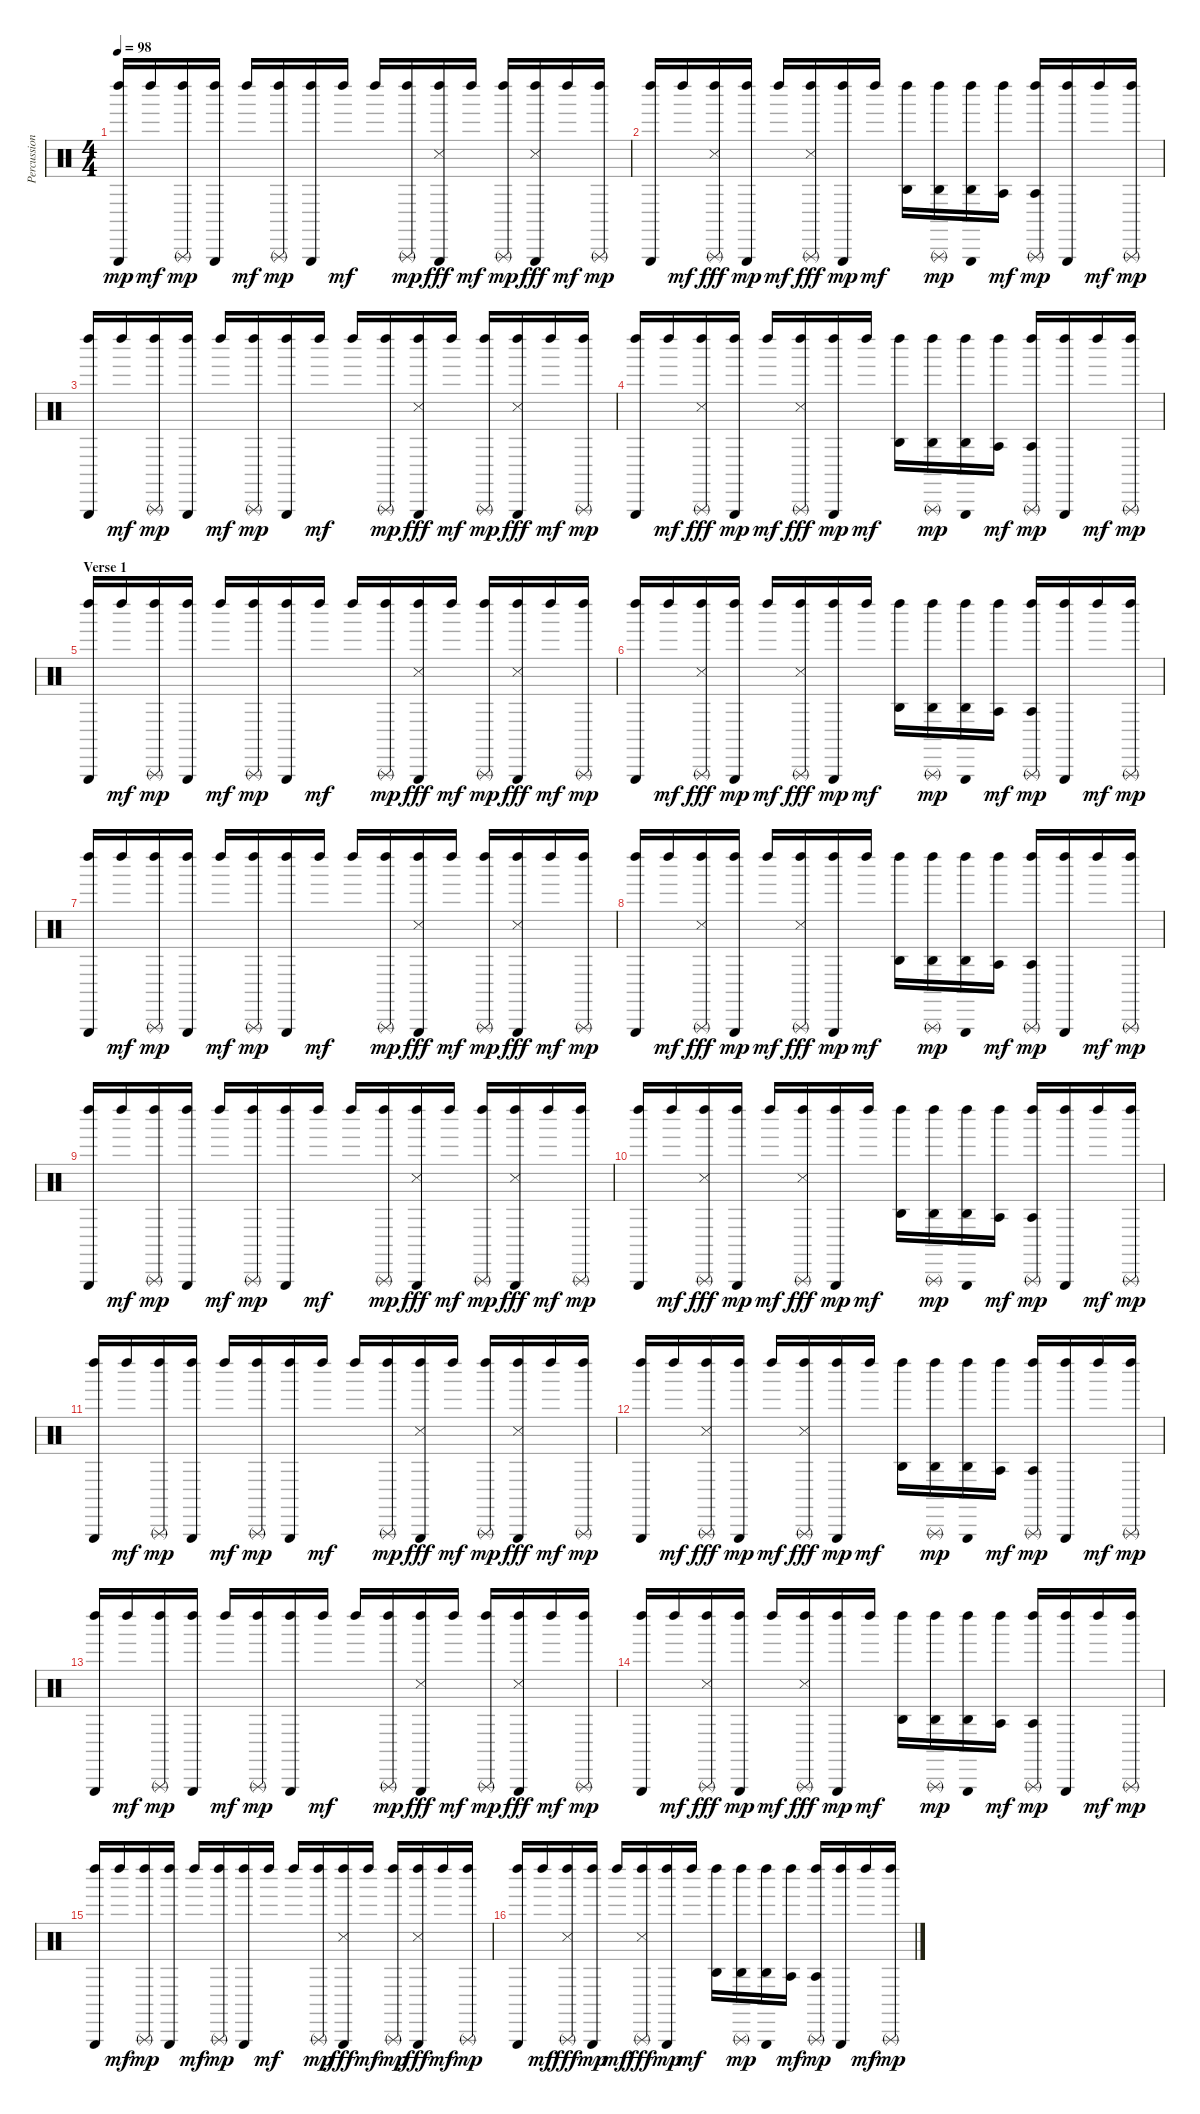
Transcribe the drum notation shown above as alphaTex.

\track ("Percussions" "Percussion") {instrument percussion}
\staff {score}
\articulation defaults
\ts (4 4)
\tempo 98
\clef neutral
\ks c
("Left Maraca (hit)" "Triangle (hit)").16{dy mp} "Left Maraca (hit)".16{dy mf} ("Left Maraca (hit)" "Triangle (rnute)").16{dy mp} ("Left Maraca (hit)" "Triangle (hit)").16 "Left Maraca (hit)".16{dy mf} ("Left Maraca (hit)" "Triangle (rnute)").16{dy mp} ("Left Maraca (hit)" "Triangle (hit)").16 "Left Maraca (hit)".16{dy mf} "Left Maraca (hit)".16 ("Left Maraca (hit)" "Triangle (rnute)").16{dy mp} ("Left Maraca (hit)" "Triangle (hit)" "Snare (side stick) 3").16{dy fff} "Left Maraca (hit)".16{dy mf} ("Left Maraca (hit)" "Triangle (rnute)").16{dy mp} ("Left Maraca (hit)" "Triangle (hit)" "Snare (side stick) 3").16{dy fff} "Left Maraca (hit)".16{dy mf} ("Left Maraca (hit)" "Triangle (rnute)").16{dy mp} |
("Left Maraca (hit)" "Triangle (hit)").16 "Left Maraca (hit)".16{dy mf} ("Left Maraca (hit)" "Triangle (rnute)" "Snare (side stick) 3").16{dy fff} ("Left Maraca (hit)" "Triangle (hit)").16{dy mp} "Left Maraca (hit)".16{dy mf} ("Left Maraca (hit)" "Triangle (rnute)" "Snare (side stick) 3").16{dy fff} ("Left Maraca (hit)" "Triangle (hit)").16{dy mp} "Left Maraca (hit)".16{dy mf} ("Left Maraca (hit)" "Agogo high (hit)").16 ("Left Maraca (hit)" "Triangle (rnute)" "Agogo high (hit)").16{dy mp} ("Left Maraca (hit)" "Triangle (hit)" "Agogo high (hit)").16 ("Left Maraca (hit)" "Agogo tow (hit)").16{dy mf} ("Left Maraca (hit)" "Triangle (rnute)" "Agogo tow (hit)").16{dy mp} ("Left Maraca (hit)" "Triangle (hit)").16 "Left Maraca (hit)".16{dy mf} ("Left Maraca (hit)" "Triangle (rnute)").16{dy mp} |
("Left Maraca (hit)" "Triangle (hit)").16 "Left Maraca (hit)".16{dy mf} ("Left Maraca (hit)" "Triangle (rnute)").16{dy mp} ("Left Maraca (hit)" "Triangle (hit)").16 "Left Maraca (hit)".16{dy mf} ("Left Maraca (hit)" "Triangle (rnute)").16{dy mp} ("Left Maraca (hit)" "Triangle (hit)").16 "Left Maraca (hit)".16{dy mf} "Left Maraca (hit)".16 ("Left Maraca (hit)" "Triangle (rnute)").16{dy mp} ("Left Maraca (hit)" "Triangle (hit)" "Snare (side stick) 3").16{dy fff} "Left Maraca (hit)".16{dy mf} ("Left Maraca (hit)" "Triangle (rnute)").16{dy mp} ("Left Maraca (hit)" "Triangle (hit)" "Snare (side stick) 3").16{dy fff} "Left Maraca (hit)".16{dy mf} ("Left Maraca (hit)" "Triangle (rnute)").16{dy mp} |
("Left Maraca (hit)" "Triangle (hit)").16 "Left Maraca (hit)".16{dy mf} ("Left Maraca (hit)" "Triangle (rnute)" "Snare (side stick) 3").16{dy fff} ("Left Maraca (hit)" "Triangle (hit)").16{dy mp} "Left Maraca (hit)".16{dy mf} ("Left Maraca (hit)" "Triangle (rnute)" "Snare (side stick) 3").16{dy fff} ("Left Maraca (hit)" "Triangle (hit)").16{dy mp} "Left Maraca (hit)".16{dy mf} ("Left Maraca (hit)" "Agogo high (hit)").16 ("Left Maraca (hit)" "Triangle (rnute)" "Agogo high (hit)").16{dy mp} ("Left Maraca (hit)" "Triangle (hit)" "Agogo high (hit)").16 ("Left Maraca (hit)" "Agogo tow (hit)").16{dy mf} ("Left Maraca (hit)" "Triangle (rnute)" "Agogo tow (hit)").16{dy mp} ("Left Maraca (hit)" "Triangle (hit)").16 "Left Maraca (hit)".16{dy mf} ("Left Maraca (hit)" "Triangle (rnute)").16{dy mp} |
\section ("" "Verse 1")
("Left Maraca (hit)" "Triangle (hit)").16 "Left Maraca (hit)".16{dy mf} ("Left Maraca (hit)" "Triangle (rnute)").16{dy mp} ("Left Maraca (hit)" "Triangle (hit)").16 "Left Maraca (hit)".16{dy mf} ("Left Maraca (hit)" "Triangle (rnute)").16{dy mp} ("Left Maraca (hit)" "Triangle (hit)").16 "Left Maraca (hit)".16{dy mf} "Left Maraca (hit)".16 ("Left Maraca (hit)" "Triangle (rnute)").16{dy mp} ("Left Maraca (hit)" "Triangle (hit)" "Snare (side stick) 3").16{dy fff} "Left Maraca (hit)".16{dy mf} ("Left Maraca (hit)" "Triangle (rnute)").16{dy mp} ("Left Maraca (hit)" "Triangle (hit)" "Snare (side stick) 3").16{dy fff} "Left Maraca (hit)".16{dy mf} ("Left Maraca (hit)" "Triangle (rnute)").16{dy mp} |
("Left Maraca (hit)" "Triangle (hit)").16 "Left Maraca (hit)".16{dy mf} ("Left Maraca (hit)" "Triangle (rnute)" "Snare (side stick) 3").16{dy fff} ("Left Maraca (hit)" "Triangle (hit)").16{dy mp} "Left Maraca (hit)".16{dy mf} ("Left Maraca (hit)" "Triangle (rnute)" "Snare (side stick) 3").16{dy fff} ("Left Maraca (hit)" "Triangle (hit)").16{dy mp} "Left Maraca (hit)".16{dy mf} ("Left Maraca (hit)" "Agogo high (hit)").16 ("Left Maraca (hit)" "Triangle (rnute)" "Agogo high (hit)").16{dy mp} ("Left Maraca (hit)" "Triangle (hit)" "Agogo high (hit)").16 ("Left Maraca (hit)" "Agogo tow (hit)").16{dy mf} ("Left Maraca (hit)" "Triangle (rnute)" "Agogo tow (hit)").16{dy mp} ("Left Maraca (hit)" "Triangle (hit)").16 "Left Maraca (hit)".16{dy mf} ("Left Maraca (hit)" "Triangle (rnute)").16{dy mp} |
("Left Maraca (hit)" "Triangle (hit)").16 "Left Maraca (hit)".16{dy mf} ("Left Maraca (hit)" "Triangle (rnute)").16{dy mp} ("Left Maraca (hit)" "Triangle (hit)").16 "Left Maraca (hit)".16{dy mf} ("Left Maraca (hit)" "Triangle (rnute)").16{dy mp} ("Left Maraca (hit)" "Triangle (hit)").16 "Left Maraca (hit)".16{dy mf} "Left Maraca (hit)".16 ("Left Maraca (hit)" "Triangle (rnute)").16{dy mp} ("Left Maraca (hit)" "Triangle (hit)" "Snare (side stick) 3").16{dy fff} "Left Maraca (hit)".16{dy mf} ("Left Maraca (hit)" "Triangle (rnute)").16{dy mp} ("Left Maraca (hit)" "Triangle (hit)" "Snare (side stick) 3").16{dy fff} "Left Maraca (hit)".16{dy mf} ("Left Maraca (hit)" "Triangle (rnute)").16{dy mp} |
("Left Maraca (hit)" "Triangle (hit)").16 "Left Maraca (hit)".16{dy mf} ("Left Maraca (hit)" "Triangle (rnute)" "Snare (side stick) 3").16{dy fff} ("Left Maraca (hit)" "Triangle (hit)").16{dy mp} "Left Maraca (hit)".16{dy mf} ("Left Maraca (hit)" "Triangle (rnute)" "Snare (side stick) 3").16{dy fff} ("Left Maraca (hit)" "Triangle (hit)").16{dy mp} "Left Maraca (hit)".16{dy mf} ("Left Maraca (hit)" "Agogo high (hit)").16 ("Left Maraca (hit)" "Triangle (rnute)" "Agogo high (hit)").16{dy mp} ("Left Maraca (hit)" "Triangle (hit)" "Agogo high (hit)").16 ("Left Maraca (hit)" "Agogo tow (hit)").16{dy mf} ("Left Maraca (hit)" "Triangle (rnute)" "Agogo tow (hit)").16{dy mp} ("Left Maraca (hit)" "Triangle (hit)").16 "Left Maraca (hit)".16{dy mf} ("Left Maraca (hit)" "Triangle (rnute)").16{dy mp} |
("Left Maraca (hit)" "Triangle (hit)").16 "Left Maraca (hit)".16{dy mf} ("Left Maraca (hit)" "Triangle (rnute)").16{dy mp} ("Left Maraca (hit)" "Triangle (hit)").16 "Left Maraca (hit)".16{dy mf} ("Left Maraca (hit)" "Triangle (rnute)").16{dy mp} ("Left Maraca (hit)" "Triangle (hit)").16 "Left Maraca (hit)".16{dy mf} "Left Maraca (hit)".16 ("Left Maraca (hit)" "Triangle (rnute)").16{dy mp} ("Left Maraca (hit)" "Triangle (hit)" "Snare (side stick) 3").16{dy fff} "Left Maraca (hit)".16{dy mf} ("Left Maraca (hit)" "Triangle (rnute)").16{dy mp} ("Left Maraca (hit)" "Triangle (hit)" "Snare (side stick) 3").16{dy fff} "Left Maraca (hit)".16{dy mf} ("Left Maraca (hit)" "Triangle (rnute)").16{dy mp} |
("Left Maraca (hit)" "Triangle (hit)").16 "Left Maraca (hit)".16{dy mf} ("Left Maraca (hit)" "Triangle (rnute)" "Snare (side stick) 3").16{dy fff} ("Left Maraca (hit)" "Triangle (hit)").16{dy mp} "Left Maraca (hit)".16{dy mf} ("Left Maraca (hit)" "Triangle (rnute)" "Snare (side stick) 3").16{dy fff} ("Left Maraca (hit)" "Triangle (hit)").16{dy mp} "Left Maraca (hit)".16{dy mf} ("Left Maraca (hit)" "Agogo high (hit)").16 ("Left Maraca (hit)" "Triangle (rnute)" "Agogo high (hit)").16{dy mp} ("Left Maraca (hit)" "Triangle (hit)" "Agogo high (hit)").16 ("Left Maraca (hit)" "Agogo tow (hit)").16{dy mf} ("Left Maraca (hit)" "Triangle (rnute)" "Agogo tow (hit)").16{dy mp} ("Left Maraca (hit)" "Triangle (hit)").16 "Left Maraca (hit)".16{dy mf} ("Left Maraca (hit)" "Triangle (rnute)").16{dy mp} |
("Left Maraca (hit)" "Triangle (hit)").16 "Left Maraca (hit)".16{dy mf} ("Left Maraca (hit)" "Triangle (rnute)").16{dy mp} ("Left Maraca (hit)" "Triangle (hit)").16 "Left Maraca (hit)".16{dy mf} ("Left Maraca (hit)" "Triangle (rnute)").16{dy mp} ("Left Maraca (hit)" "Triangle (hit)").16 "Left Maraca (hit)".16{dy mf} "Left Maraca (hit)".16 ("Left Maraca (hit)" "Triangle (rnute)").16{dy mp} ("Left Maraca (hit)" "Triangle (hit)" "Snare (side stick) 3").16{dy fff} "Left Maraca (hit)".16{dy mf} ("Left Maraca (hit)" "Triangle (rnute)").16{dy mp} ("Left Maraca (hit)" "Triangle (hit)" "Snare (side stick) 3").16{dy fff} "Left Maraca (hit)".16{dy mf} ("Left Maraca (hit)" "Triangle (rnute)").16{dy mp} |
("Left Maraca (hit)" "Triangle (hit)").16 "Left Maraca (hit)".16{dy mf} ("Left Maraca (hit)" "Triangle (rnute)" "Snare (side stick) 3").16{dy fff} ("Left Maraca (hit)" "Triangle (hit)").16{dy mp} "Left Maraca (hit)".16{dy mf} ("Left Maraca (hit)" "Triangle (rnute)" "Snare (side stick) 3").16{dy fff} ("Left Maraca (hit)" "Triangle (hit)").16{dy mp} "Left Maraca (hit)".16{dy mf} ("Left Maraca (hit)" "Agogo high (hit)").16 ("Left Maraca (hit)" "Triangle (rnute)" "Agogo high (hit)").16{dy mp} ("Left Maraca (hit)" "Triangle (hit)" "Agogo high (hit)").16 ("Left Maraca (hit)" "Agogo tow (hit)").16{dy mf} ("Left Maraca (hit)" "Triangle (rnute)" "Agogo tow (hit)").16{dy mp} ("Left Maraca (hit)" "Triangle (hit)").16 "Left Maraca (hit)".16{dy mf} ("Left Maraca (hit)" "Triangle (rnute)").16{dy mp} |
("Left Maraca (hit)" "Triangle (hit)").16 "Left Maraca (hit)".16{dy mf} ("Left Maraca (hit)" "Triangle (rnute)").16{dy mp} ("Left Maraca (hit)" "Triangle (hit)").16 "Left Maraca (hit)".16{dy mf} ("Left Maraca (hit)" "Triangle (rnute)").16{dy mp} ("Left Maraca (hit)" "Triangle (hit)").16 "Left Maraca (hit)".16{dy mf} "Left Maraca (hit)".16 ("Left Maraca (hit)" "Triangle (rnute)").16{dy mp} ("Left Maraca (hit)" "Triangle (hit)" "Snare (side stick) 3").16{dy fff} "Left Maraca (hit)".16{dy mf} ("Left Maraca (hit)" "Triangle (rnute)").16{dy mp} ("Left Maraca (hit)" "Triangle (hit)" "Snare (side stick) 3").16{dy fff} "Left Maraca (hit)".16{dy mf} ("Left Maraca (hit)" "Triangle (rnute)").16{dy mp} |
("Left Maraca (hit)" "Triangle (hit)").16 "Left Maraca (hit)".16{dy mf} ("Left Maraca (hit)" "Triangle (rnute)" "Snare (side stick) 3").16{dy fff} ("Left Maraca (hit)" "Triangle (hit)").16{dy mp} "Left Maraca (hit)".16{dy mf} ("Left Maraca (hit)" "Triangle (rnute)" "Snare (side stick) 3").16{dy fff} ("Left Maraca (hit)" "Triangle (hit)").16{dy mp} "Left Maraca (hit)".16{dy mf} ("Left Maraca (hit)" "Agogo high (hit)").16 ("Left Maraca (hit)" "Triangle (rnute)" "Agogo high (hit)").16{dy mp} ("Left Maraca (hit)" "Triangle (hit)" "Agogo high (hit)").16 ("Left Maraca (hit)" "Agogo tow (hit)").16{dy mf} ("Left Maraca (hit)" "Triangle (rnute)" "Agogo tow (hit)").16{dy mp} ("Left Maraca (hit)" "Triangle (hit)").16 "Left Maraca (hit)".16{dy mf} ("Left Maraca (hit)" "Triangle (rnute)").16{dy mp} |
("Left Maraca (hit)" "Triangle (hit)").16 "Left Maraca (hit)".16{dy mf} ("Left Maraca (hit)" "Triangle (rnute)").16{dy mp} ("Left Maraca (hit)" "Triangle (hit)").16 "Left Maraca (hit)".16{dy mf} ("Left Maraca (hit)" "Triangle (rnute)").16{dy mp} ("Left Maraca (hit)" "Triangle (hit)").16 "Left Maraca (hit)".16{dy mf} "Left Maraca (hit)".16 ("Left Maraca (hit)" "Triangle (rnute)").16{dy mp} ("Left Maraca (hit)" "Triangle (hit)" "Snare (side stick) 3").16{dy fff} "Left Maraca (hit)".16{dy mf} ("Left Maraca (hit)" "Triangle (rnute)").16{dy mp} ("Left Maraca (hit)" "Triangle (hit)" "Snare (side stick) 3").16{dy fff} "Left Maraca (hit)".16{dy mf} ("Left Maraca (hit)" "Triangle (rnute)").16{dy mp} |
("Left Maraca (hit)" "Triangle (hit)").16 "Left Maraca (hit)".16{dy mf} ("Left Maraca (hit)" "Triangle (rnute)" "Snare (side stick) 3").16{dy fff} ("Left Maraca (hit)" "Triangle (hit)").16{dy mp} "Left Maraca (hit)".16{dy mf} ("Left Maraca (hit)" "Triangle (rnute)" "Snare (side stick) 3").16{dy fff} ("Left Maraca (hit)" "Triangle (hit)").16{dy mp} "Left Maraca (hit)".16{dy mf} ("Left Maraca (hit)" "Agogo high (hit)").16 ("Left Maraca (hit)" "Triangle (rnute)" "Agogo high (hit)").16{dy mp} ("Left Maraca (hit)" "Triangle (hit)" "Agogo high (hit)").16 ("Left Maraca (hit)" "Agogo tow (hit)").16{dy mf} ("Left Maraca (hit)" "Triangle (rnute)" "Agogo tow (hit)").16{dy mp} ("Left Maraca (hit)" "Triangle (hit)").16 "Left Maraca (hit)".16{dy mf} ("Left Maraca (hit)" "Triangle (rnute)").16{dy mp}
